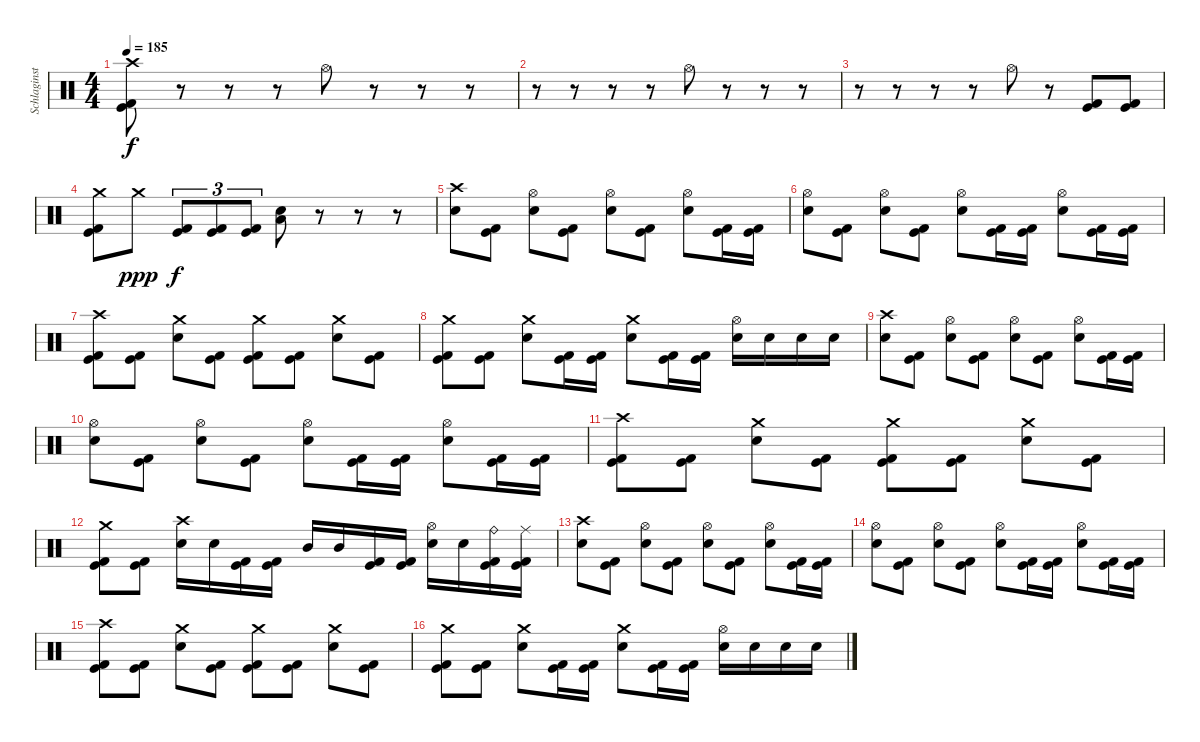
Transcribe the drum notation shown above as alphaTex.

\track ("Schlaginstrumente - Auswahl" "Schlaginst") {instrument percussion}
\staff {score}
\articulation defaults
\ts (4 4)
\tempo 185
\clef neutral
\ks c
("Crash high (hit)" "Kick (hit)" "Kick (hit) 2").8{dy f} r.8 r.8 r.8 "Hi-Hat (open)".8 r.8 r.8 r.8 |
r.8 r.8 r.8 r.8 "Hi-Hat (open)".8 r.8 r.8 r.8 |
r.8 r.8 r.8 r.8 "Hi-Hat (open)".8 r.8 ("Kick (hit)" "Kick (hit) 2").8 ("Kick (hit)" "Kick (hit) 2").8 |
("Crash medium (hit)" "Kick (hit)" "Kick (hit) 2").8 "Crash medium (hit)".8{dy ppp} ("Kick (hit)" "Kick (hit) 2").8{tu (3 2) dy f} ("Kick (hit)" "Kick (hit) 2").8{tu (3 2)} ("Kick (hit)" "Kick (hit) 2").8{tu (3 2)} ("Low Floor Tom (hit)" "Electric Snare (hit)").8 r.8 r.8 r.8 |
("Crash high (hit)" "Electric Snare (hit)").8 ("Kick (hit)" "Kick (hit) 2").8 ("Hi-Hat (open)" "Electric Snare (hit)").8 ("Kick (hit)" "Kick (hit) 2").8 ("Hi-Hat (open)" "Electric Snare (hit)").8 ("Kick (hit)" "Kick (hit) 2").8 ("Hi-Hat (open)" "Electric Snare (hit)").8 ("Kick (hit)" "Kick (hit) 2").16 ("Kick (hit)" "Kick (hit) 2").16 |
("Hi-Hat (open)" "Electric Snare (hit)").8 ("Kick (hit)" "Kick (hit) 2").8 ("Hi-Hat (open)" "Electric Snare (hit)").8 ("Kick (hit)" "Kick (hit) 2").8 ("Hi-Hat (open)" "Electric Snare (hit)").8 ("Kick (hit)" "Kick (hit) 2").16 ("Kick (hit)" "Kick (hit) 2").16 ("Hi-Hat (open)" "Electric Snare (hit)").8 ("Kick (hit)" "Kick (hit) 2").16 ("Kick (hit)" "Kick (hit) 2").16 |
("Crash high (hit)" "Kick (hit)" "Kick (hit) 2").8 ("Kick (hit)" "Kick (hit) 2").8 ("Crash medium (hit)" "Electric Snare (hit)").8 ("Kick (hit)" "Kick (hit) 2").8 ("Crash medium (hit)" "Kick (hit)" "Kick (hit) 2").8 ("Kick (hit)" "Kick (hit) 2").8 ("Crash medium (hit)" "Electric Snare (hit)").8 ("Kick (hit)" "Kick (hit) 2").8 |
("Crash medium (hit)" "Kick (hit)" "Kick (hit) 2").8 ("Kick (hit)" "Kick (hit) 2").8 ("Crash medium (hit)" "Electric Snare (hit)").8 ("Kick (hit)" "Kick (hit) 2").16 ("Kick (hit)" "Kick (hit) 2").16 ("Crash medium (hit)" "Electric Snare (hit)").8 ("Kick (hit)" "Kick (hit) 2").16 ("Kick (hit)" "Kick (hit) 2").16 ("Hi-Hat (open)" "Electric Snare (hit)").16 "Electric Snare (hit)".16 "Electric Snare (hit)".16 "Electric Snare (hit)".16 |
("Crash high (hit)" "Electric Snare (hit)").8 ("Kick (hit)" "Kick (hit) 2").8 ("Hi-Hat (open)" "Electric Snare (hit)").8 ("Kick (hit)" "Kick (hit) 2").8 ("Hi-Hat (open)" "Electric Snare (hit)").8 ("Kick (hit)" "Kick (hit) 2").8 ("Hi-Hat (open)" "Electric Snare (hit)").8 ("Kick (hit)" "Kick (hit) 2").16 ("Kick (hit)" "Kick (hit) 2").16 |
("Hi-Hat (open)" "Electric Snare (hit)").8 ("Kick (hit)" "Kick (hit) 2").8 ("Hi-Hat (open)" "Electric Snare (hit)").8 ("Kick (hit)" "Kick (hit) 2").8 ("Hi-Hat (open)" "Electric Snare (hit)").8 ("Kick (hit)" "Kick (hit) 2").16 ("Kick (hit)" "Kick (hit) 2").16 ("Hi-Hat (open)" "Electric Snare (hit)").8 ("Kick (hit)" "Kick (hit) 2").16 ("Kick (hit)" "Kick (hit) 2").16 |
("Crash high (hit)" "Kick (hit)" "Kick (hit) 2").8 ("Kick (hit)" "Kick (hit) 2").8 ("Crash medium (hit)" "Electric Snare (hit)").8 ("Kick (hit)" "Kick (hit) 2").8 ("Crash medium (hit)" "Kick (hit)" "Kick (hit) 2").8 ("Kick (hit)" "Kick (hit) 2").8 ("Crash medium (hit)" "Electric Snare (hit)").8 ("Kick (hit)" "Kick (hit) 2").8 |
("Crash medium (hit)" "Kick (hit)" "Kick (hit) 2").8 ("Kick (hit)" "Kick (hit) 2").8 ("Crash high (hit)" "Electric Snare (hit)").16 "Electric Snare (hit)".16 ("Kick (hit)" "Kick (hit) 2").16 ("Kick (hit)" "Kick (hit) 2").16 "Mid Tom (hit)".16 "Mid Tom (hit)".16 ("Kick (hit)" "Kick (hit) 2").16 ("Kick (hit)" "Kick (hit) 2").16 ("Hi-Hat (open)" "Electric Snare (hit)").16 "Electric Snare (hit)".16 ("Ride (bell)" "Kick (hit)" "Kick (hit) 2").16 ("Ride (middle)" "Kick (hit)" "Kick (hit) 2").16 |
("Crash high (hit)" "Electric Snare (hit)").8 ("Kick (hit)" "Kick (hit) 2").8 ("Hi-Hat (open)" "Electric Snare (hit)").8 ("Kick (hit)" "Kick (hit) 2").8 ("Hi-Hat (open)" "Electric Snare (hit)").8 ("Kick (hit)" "Kick (hit) 2").8 ("Hi-Hat (open)" "Electric Snare (hit)").8 ("Kick (hit)" "Kick (hit) 2").16 ("Kick (hit)" "Kick (hit) 2").16 |
("Hi-Hat (open)" "Electric Snare (hit)").8 ("Kick (hit)" "Kick (hit) 2").8 ("Hi-Hat (open)" "Electric Snare (hit)").8 ("Kick (hit)" "Kick (hit) 2").8 ("Hi-Hat (open)" "Electric Snare (hit)").8 ("Kick (hit)" "Kick (hit) 2").16 ("Kick (hit)" "Kick (hit) 2").16 ("Hi-Hat (open)" "Electric Snare (hit)").8 ("Kick (hit)" "Kick (hit) 2").16 ("Kick (hit)" "Kick (hit) 2").16 |
("Crash high (hit)" "Kick (hit)" "Kick (hit) 2").8 ("Kick (hit)" "Kick (hit) 2").8 ("Crash medium (hit)" "Electric Snare (hit)").8 ("Kick (hit)" "Kick (hit) 2").8 ("Crash medium (hit)" "Kick (hit)" "Kick (hit) 2").8 ("Kick (hit)" "Kick (hit) 2").8 ("Crash medium (hit)" "Electric Snare (hit)").8 ("Kick (hit)" "Kick (hit) 2").8 |
("Crash medium (hit)" "Kick (hit)" "Kick (hit) 2").8 ("Kick (hit)" "Kick (hit) 2").8 ("Crash medium (hit)" "Electric Snare (hit)").8 ("Kick (hit)" "Kick (hit) 2").16 ("Kick (hit)" "Kick (hit) 2").16 ("Crash medium (hit)" "Electric Snare (hit)").8 ("Kick (hit)" "Kick (hit) 2").16 ("Kick (hit)" "Kick (hit) 2").16 ("Hi-Hat (open)" "Electric Snare (hit)").16 "Electric Snare (hit)".16 "Electric Snare (hit)".16 "Electric Snare (hit)".16
